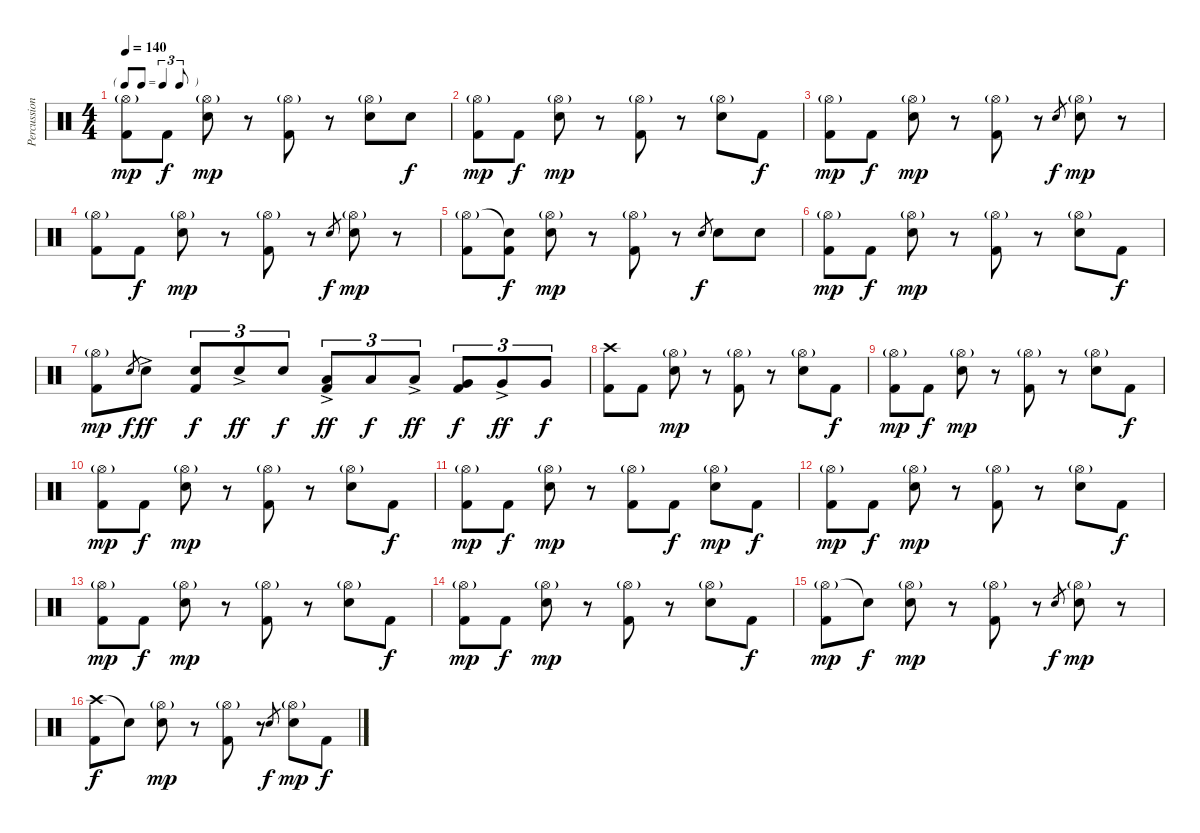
\track ("Percussion" "Percussion") {instrument percussion}
\staff {score}
\articulation defaults
\ts (4 4)
\tf triplet8th
\tempo 140
\clef neutral
\ks c
("Hi-Hat (open)"{g} "Kick (hit) 2").8{dy mp} "Kick (hit) 2".8{dy f} ("Hi-Hat (open)"{g} "Snare (hit) 2").8{dy mp} r.8 ("Hi-Hat (open)"{g} "Kick (hit) 2").8 r.8 ("Hi-Hat (open)"{g} "Snare (hit) 2").8 "Snare (hit) 2".8{dy f} |
("Hi-Hat (open)"{g} "Kick (hit) 2").8{dy mp} "Kick (hit) 2".8{dy f} ("Hi-Hat (open)"{g} "Snare (hit) 2").8{dy mp} r.8 ("Hi-Hat (open)"{g} "Kick (hit) 2").8 r.8 ("Hi-Hat (open)"{g} "Snare (hit) 2").8 "Kick (hit) 2".8{dy f} |
("Hi-Hat (open)"{g} "Kick (hit) 2").8{dy mp} "Kick (hit) 2".8{dy f} ("Hi-Hat (open)"{g} "Snare (hit) 2").8{dy mp} r.8 ("Hi-Hat (open)"{g} "Kick (hit) 2").8 r.8 "Snare (hit) 2".8{gr dy f} ("Hi-Hat (open)"{g} "Snare (hit) 2").8{dy mp} r.8 |
("Hi-Hat (open)"{g} "Kick (hit) 2").8 "Kick (hit) 2".8{dy f} ("Hi-Hat (open)"{g} "Snare (hit) 2").8{dy mp} r.8 ("Hi-Hat (open)"{g} "Kick (hit) 2").8 r.8 "Snare (hit) 2".8{gr dy f} ("Hi-Hat (open)"{g} "Snare (hit) 2").8{dy mp} r.8 |
("Hi-Hat (open)"{g} "Kick (hit) 2").8 ("Snare (hit)"{t} "Kick (hit) 2").8{dy f} ("Hi-Hat (open)"{g} "Snare (hit) 2").8{dy mp} r.8 ("Hi-Hat (open)"{g} "Kick (hit) 2").8 r.8 "Snare (hit) 2".8{gr dy f} "Snare (hit) 2".8 "Snare (hit) 2".8 |
("Hi-Hat (open)"{g} "Kick (hit) 2").8{dy mp} "Kick (hit) 2".8{dy f} ("Hi-Hat (open)"{g} "Snare (hit) 2").8{dy mp} r.8 ("Hi-Hat (open)"{g} "Kick (hit) 2").8 r.8 ("Hi-Hat (open)"{g} "Snare (hit) 2").8 "Kick (hit) 2".8{dy f} |
("Hi-Hat (open)"{g} "Kick (hit) 2").8{dy mp} "Snare (hit) 2".8{gr dy f} "Snare (hit) 2"{ac}.8{dy ff} ("Snare (hit) 2" "Kick (hit) 2").8{tu (3 2) dy f} "Snare (hit) 2"{ac}.8{tu (3 2) dy ff} "Snare (hit) 2".8{tu (3 2) dy f} ("Low Tom (hit)"{ac} "Kick (hit) 2").8{tu (3 2) dy ff} "Low Tom (hit)".8{tu (3 2) dy f} "Low Tom (hit)"{ac}.8{tu (3 2) dy ff} ("Very Low Tom (hit)" "Kick (hit) 2").8{tu (3 2) dy f} "Very Low Tom (hit)"{ac}.8{tu (3 2) dy ff} "Very Low Tom (hit)".8{tu (3 2) dy f} |
("Crash high (hit)" "Kick (hit) 2").8 "Kick (hit) 2".8 ("Hi-Hat (open)"{g} "Snare (hit) 2").8{dy mp} r.8 ("Hi-Hat (open)"{g} "Kick (hit) 2").8 r.8 ("Hi-Hat (open)"{g} "Snare (hit) 2").8 "Kick (hit) 2".8{dy f} |
("Hi-Hat (open)"{g} "Kick (hit) 2").8{dy mp} "Kick (hit) 2".8{dy f} ("Hi-Hat (open)"{g} "Snare (hit) 2").8{dy mp} r.8 ("Hi-Hat (open)"{g} "Kick (hit) 2").8 r.8 ("Hi-Hat (open)"{g} "Snare (hit) 2").8 "Kick (hit) 2".8{dy f} |
("Hi-Hat (open)"{g} "Kick (hit) 2").8{dy mp} "Kick (hit) 2".8{dy f} ("Hi-Hat (open)"{g} "Snare (hit) 2").8{dy mp} r.8 ("Hi-Hat (open)"{g} "Kick (hit) 2").8 r.8 ("Hi-Hat (open)"{g} "Snare (hit) 2").8 "Kick (hit) 2".8{dy f} |
("Hi-Hat (open)"{g} "Kick (hit) 2").8{dy mp} "Kick (hit) 2".8{dy f} ("Hi-Hat (open)"{g} "Snare (hit) 2").8{dy mp} r.8 ("Hi-Hat (open)"{g} "Kick (hit) 2").8 "Kick (hit) 2".8{dy f} ("Hi-Hat (open)"{g} "Snare (hit) 2").8{dy mp} "Kick (hit) 2".8{dy f} |
("Hi-Hat (open)"{g} "Kick (hit) 2").8{dy mp} "Kick (hit) 2".8{dy f} ("Hi-Hat (open)"{g} "Snare (hit) 2").8{dy mp} r.8 ("Hi-Hat (open)"{g} "Kick (hit) 2").8 r.8 ("Hi-Hat (open)"{g} "Snare (hit) 2").8 "Kick (hit) 2".8{dy f} |
("Hi-Hat (open)"{g} "Kick (hit) 2").8{dy mp} "Kick (hit) 2".8{dy f} ("Hi-Hat (open)"{g} "Snare (hit) 2").8{dy mp} r.8 ("Hi-Hat (open)"{g} "Kick (hit) 2").8 r.8 ("Hi-Hat (open)"{g} "Snare (hit) 2").8 "Kick (hit) 2".8{dy f} |
("Hi-Hat (open)"{g} "Kick (hit) 2").8{dy mp} "Kick (hit) 2".8{dy f} ("Hi-Hat (open)"{g} "Snare (hit) 2").8{dy mp} r.8 ("Hi-Hat (open)"{g} "Kick (hit) 2").8 r.8 ("Hi-Hat (open)"{g} "Snare (hit) 2").8 "Kick (hit) 2".8{dy f} |
("Hi-Hat (open)"{g} "Kick (hit) 2").8{dy mp} "Snare (hit)"{t}.8{dy f} ("Hi-Hat (open)"{g} "Snare (hit) 2").8{dy mp} r.8 ("Hi-Hat (open)"{g} "Kick (hit) 2").8 r.8 "Snare (hit) 2".8{gr dy f} ("Hi-Hat (open)"{g} "Snare (hit) 2").8{dy mp} r.8 |
("Crash high (hit)" "Kick (hit) 2").8{dy f} "Snare (hit)"{t}.8 ("Hi-Hat (open)"{g} "Snare (hit) 2").8{dy mp} r.8 ("Hi-Hat (open)"{g} "Kick (hit) 2").8 r.8 "Snare (hit) 2".8{gr dy f} ("Hi-Hat (open)"{g} "Snare (hit) 2").8{dy mp} "Kick (hit) 2".8{dy f}
